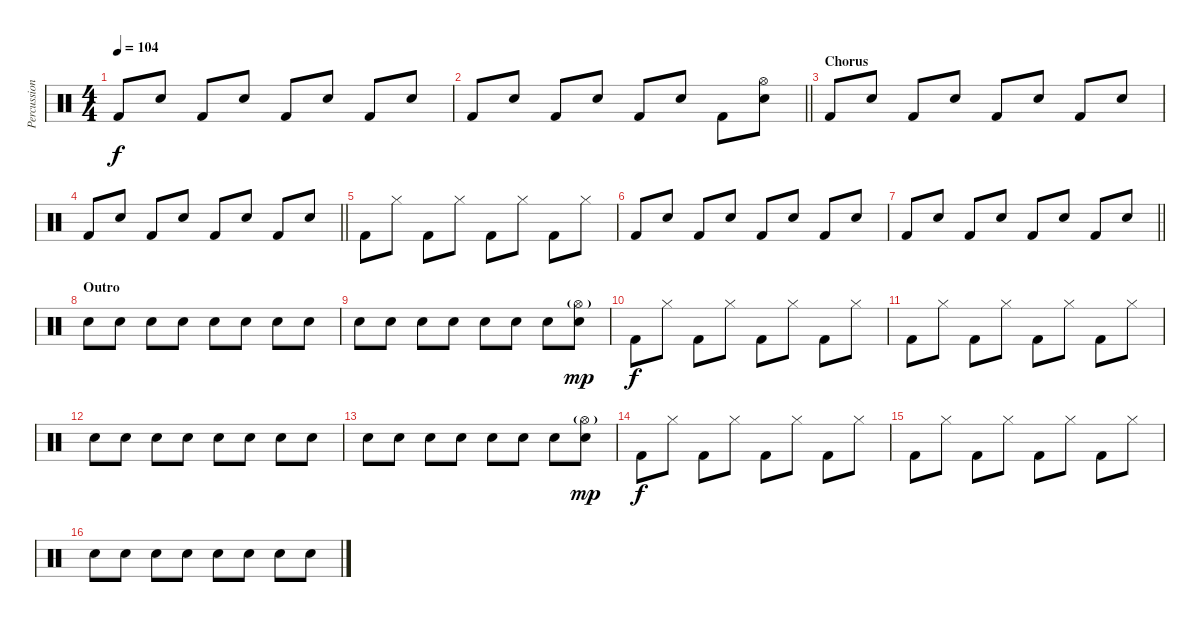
\track ("Percussion" "Percussion") {instrument percussion}
\staff {score}
\articulation defaults
\ts (4 4)
\tempo 104
\clef neutral
\ks c "Kick (hit) 2".8{dy f} "Electric Snare (hit)".8 "Kick (hit) 2".8 "Electric Snare (hit)".8 "Kick (hit) 2".8 "Electric Snare (hit)".8 "Kick (hit) 2".8 "Electric Snare (hit)".8
|
\barLineRight lightlight "Kick (hit) 2".8 "Electric Snare (hit)".8 "Kick (hit) 2".8 "Electric Snare (hit)".8 "Kick (hit) 2".8 "Electric Snare (hit)".8 "Kick (hit) 2".8
("Hi-Hat (open)" "Electric Snare (hit)").8 |
\section ("" "Chorus")
"Kick (hit) 2".8 "Electric Snare (hit)".8 "Kick (hit) 2".8 "Electric Snare (hit)".8 "Kick (hit) 2".8 "Electric Snare (hit)".8 "Kick (hit) 2".8 "Electric Snare (hit)".8 |
\barLineRight lightlight "Kick (hit) 2".8 "Electric Snare (hit)".8 "Kick (hit) 2".8 "Electric Snare (hit)".8 "Kick (hit) 2".8 "Electric Snare (hit)".8 "Kick (hit) 2".8 "Electric Snare (hit)".8
|
"Kick (hit) 2".8 "Hi-Hat (closed)".8 "Kick (hit) 2".8 "Hi-Hat (closed)".8 "Kick (hit) 2".8 "Hi-Hat (closed)".8 "Kick (hit) 2".8 "Hi-Hat (closed)".8 |
"Kick (hit) 2".8 "Electric Snare (hit)".8 "Kick (hit) 2".8 "Electric Snare (hit)".8 "Kick (hit) 2".8 "Electric Snare (hit)".8 "Kick (hit) 2".8 "Electric Snare (hit)".8 |
\barLineRight lightlight "Kick (hit) 2".8 "Electric Snare (hit)".8 "Kick (hit) 2".8 "Electric Snare (hit)".8 "Kick (hit) 2".8 "Electric Snare (hit)".8 "Kick (hit) 2".8 "Electric Snare (hit)".8
|
\section ("" "Outro")
"Electric Snare (hit)".8 "Electric Snare (hit)".8 "Electric Snare (hit)".8 "Electric Snare (hit)".8 "Electric Snare (hit)".8 "Electric Snare (hit)".8 "Electric Snare (hit)".8 "Electric Snare (hit)".8 |
"Electric Snare (hit)".8 "Electric Snare (hit)".8 "Electric Snare (hit)".8 "Electric Snare (hit)".8 "Electric Snare (hit)".8 "Electric Snare (hit)".8 "Electric Snare (hit)".8 ("Hi-Hat (open)"{g} "Electric Snare (hit)").8{dy mp} |
"Kick (hit) 2".8{dy f} "Hi-Hat (closed)".8 "Kick (hit) 2".8 "Hi-Hat (closed)".8 "Kick (hit) 2".8 "Hi-Hat (closed)".8 "Kick (hit) 2".8 "Hi-Hat (closed)".8 |
"Kick (hit) 2".8 "Hi-Hat (closed)".8 "Kick (hit) 2".8 "Hi-Hat (closed)".8 "Kick (hit) 2".8 "Hi-Hat (closed)".8 "Kick (hit) 2".8 "Hi-Hat (closed)".8 |
"Electric Snare (hit)".8 "Electric Snare (hit)".8 "Electric Snare (hit)".8 "Electric Snare (hit)".8 "Electric Snare (hit)".8 "Electric Snare (hit)".8 "Electric Snare (hit)".8 "Electric Snare (hit)".8 |
"Electric Snare (hit)".8 "Electric Snare (hit)".8 "Electric Snare (hit)".8 "Electric Snare (hit)".8 "Electric Snare (hit)".8 "Electric Snare (hit)".8 "Electric Snare (hit)".8 ("Hi-Hat (open)"{g} "Electric Snare (hit)").8{dy mp} |
"Kick (hit) 2".8{dy f} "Hi-Hat (closed)".8 "Kick (hit) 2".8 "Hi-Hat (closed)".8 "Kick (hit) 2".8 "Hi-Hat (closed)".8 "Kick (hit) 2".8 "Hi-Hat (closed)".8 |
"Kick (hit) 2".8 "Hi-Hat (closed)".8 "Kick (hit) 2".8 "Hi-Hat (closed)".8 "Kick (hit) 2".8 "Hi-Hat (closed)".8 "Kick (hit) 2".8 "Hi-Hat (closed)".8 |
"Electric Snare (hit)".8 "Electric Snare (hit)".8 "Electric Snare (hit)".8 "Electric Snare (hit)".8 "Electric Snare (hit)".8 "Electric Snare (hit)".8 "Electric Snare (hit)".8 "Electric Snare (hit)".8
